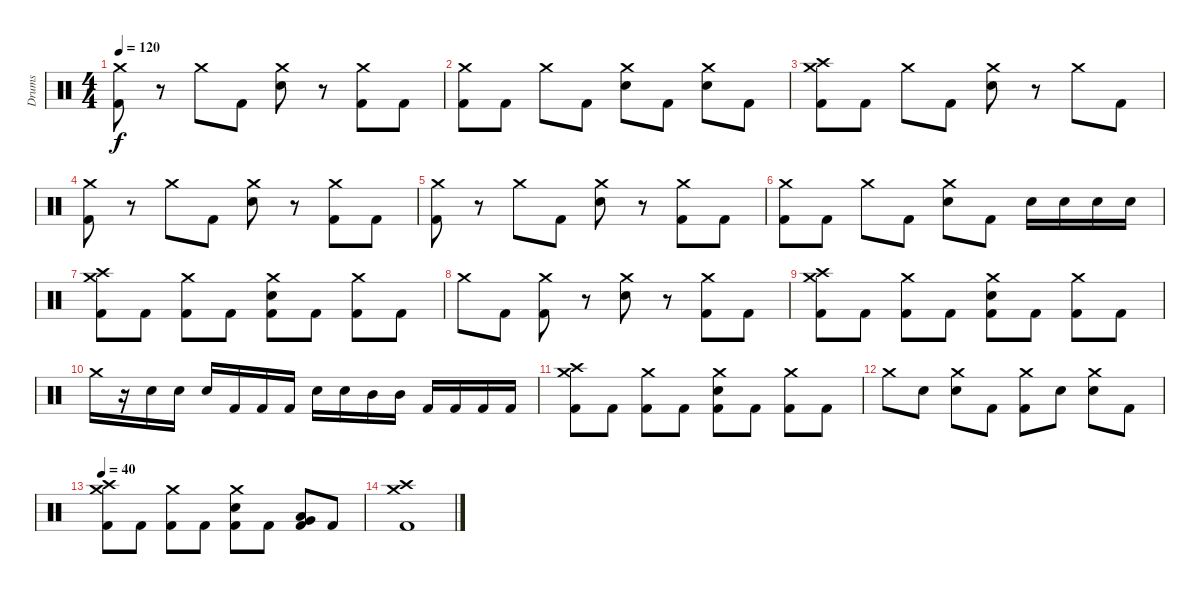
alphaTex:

\track ("Drums" "Drums") {instrument percussion}
\staff {score}
\articulation defaults
\ts (4 4)
\tempo 120
\clef neutral
\ks c
("Crash medium (hit)" "Kick (hit) 2").8{dy f} r.8 "Crash medium (hit)".8 "Kick (hit) 2".8 ("Crash medium (hit)" "Snare (hit) 2").8 r.8 ("Crash medium (hit)" "Kick (hit) 2").8 "Kick (hit) 2".8 |
("Crash medium (hit)" "Kick (hit) 2").8 "Kick (hit) 2".8 "Crash medium (hit)".8 "Kick (hit) 2".8 ("Crash medium (hit)" "Snare (hit) 2").8 "Kick (hit) 2".8 ("Crash medium (hit)" "Snare (hit) 2").8 "Kick (hit) 2".8 |
("Crash high (hit)" "Crash medium (hit)" "Kick (hit) 2").8 "Kick (hit) 2".8 "Crash medium (hit)".8 "Kick (hit) 2".8 ("Crash medium (hit)" "Snare (hit) 2").8 r.8 "Crash medium (hit)".8 "Kick (hit) 2".8 |
("Crash medium (hit)" "Kick (hit) 2").8 r.8 "Crash medium (hit)".8 "Kick (hit) 2".8 ("Crash medium (hit)" "Snare (hit) 2").8 r.8 ("Crash medium (hit)" "Kick (hit) 2").8 "Kick (hit) 2".8 |
("Crash medium (hit)" "Kick (hit) 2").8 r.8 "Crash medium (hit)".8 "Kick (hit) 2".8 ("Crash medium (hit)" "Snare (hit) 2").8 r.8 ("Crash medium (hit)" "Kick (hit) 2").8 "Kick (hit) 2".8 |
("Crash medium (hit)" "Kick (hit) 2").8 "Kick (hit) 2".8 "Crash medium (hit)".8 "Kick (hit) 2".8 ("Crash medium (hit)" "Snare (hit) 2").8 "Kick (hit) 2".8 "Snare (hit) 2".16 "Snare (hit) 2".16 "Snare (hit) 2".16 "Snare (hit) 2".16 |
("Crash high (hit)" "Crash medium (hit)" "Kick (hit) 2").8 "Kick (hit) 2".8 ("Crash medium (hit)" "Kick (hit) 2").8 "Kick (hit) 2".8 ("Crash medium (hit)" "Snare (hit) 2" "Kick (hit) 2").8 "Kick (hit) 2".8 ("Crash medium (hit)" "Kick (hit) 2").8 "Kick (hit) 2".8 |
"Crash medium (hit)".8 "Kick (hit) 2".8 ("Crash medium (hit)" "Kick (hit) 2").8 r.8 ("Crash medium (hit)" "Snare (hit) 2").8 r.8 ("Crash medium (hit)" "Kick (hit) 2").8 "Kick (hit) 2".8 |
("Crash high (hit)" "Crash medium (hit)" "Kick (hit) 2").8 "Kick (hit) 2".8 ("Crash medium (hit)" "Kick (hit) 2").8 "Kick (hit) 2".8 ("Crash medium (hit)" "Snare (hit) 2" "Kick (hit) 2").8 "Kick (hit) 2".8 ("Crash medium (hit)" "Kick (hit) 2").8 "Kick (hit) 2".8 |
"Crash medium (hit)".16 r.16 "Snare (hit) 2".16 "Snare (hit) 2".16 "Snare (hit) 2".16 "Kick (hit) 2".16 "Kick (hit) 2".16 "Kick (hit) 2".16 "Snare (hit) 2".16 "Snare (hit) 2".16 "Mid Tom (hit)".16 "Mid Tom (hit)".16 "Kick (hit) 2".16 "Kick (hit) 2".16 "Kick (hit) 2".16 "Kick (hit) 2".16 |
("Crash high (hit)" "Crash medium (hit)" "Kick (hit) 2").8 "Kick (hit) 2".8 ("Crash medium (hit)" "Kick (hit) 2").8 "Kick (hit) 2".8 ("Crash medium (hit)" "Snare (hit) 2" "Kick (hit) 2").8 "Kick (hit) 2".8 ("Crash medium (hit)" "Kick (hit) 2").8 "Kick (hit) 2".8 |
"Crash medium (hit)".8 "Snare (hit) 2".8 ("Crash medium (hit)" "Snare (hit) 2").8 "Kick (hit) 2".8 ("Crash medium (hit)" "Kick (hit) 2").8 "Snare (hit) 2".8 ("Crash medium (hit)" "Snare (hit) 2").8 "Kick (hit) 2".8 |
\tempo 40
("Crash high (hit)" "Crash medium (hit)" "Kick (hit) 2").8 "Kick (hit) 2".8 ("Crash medium (hit)" "Kick (hit) 2").8 "Kick (hit) 2".8 ("Crash medium (hit)" "Snare (hit) 2" "Kick (hit) 2").8 "Kick (hit) 2".8 ("Low Tom (hit)" "Very Low Tom (hit)" "Kick (hit) 2").8 "Kick (hit) 2".8 |
("Crash high (hit)" "Crash medium (hit)" "Kick (hit) 2").1
